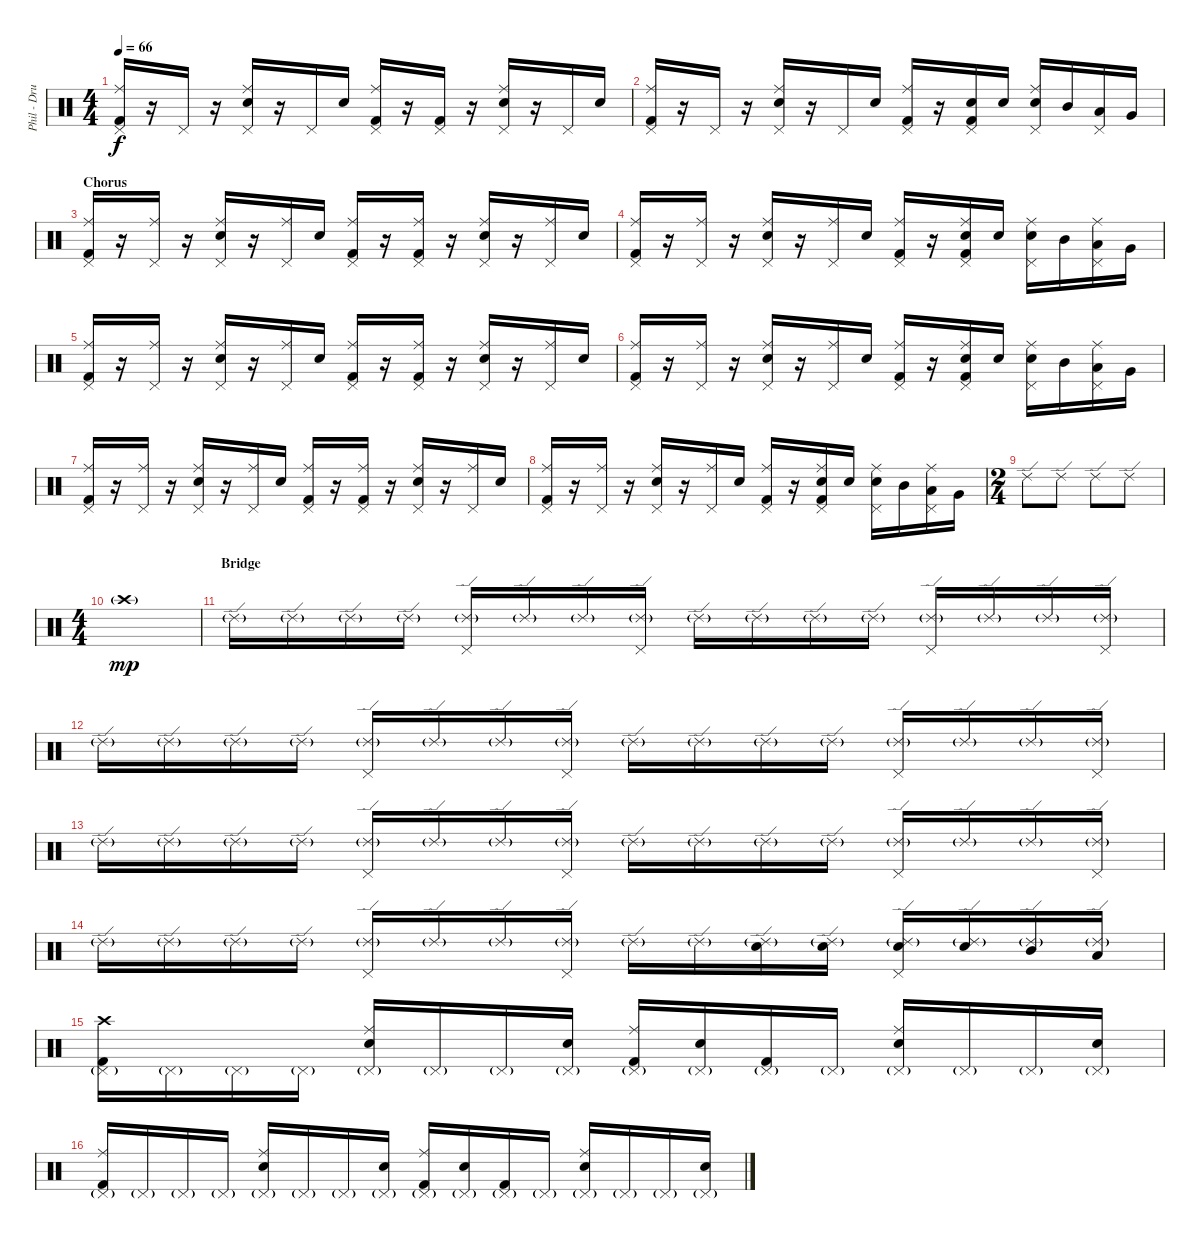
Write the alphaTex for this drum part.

\track ("Phil - Drums" "Phil - Dru") {instrument percussion}
\staff {score}
\articulation defaults
\ts (4 4)
\tempo 66
\clef neutral
\ks c
("Ride (middle)" "Kick (hit) 2" "Pedal Hi-Hat (hit)").16{dy f} r.16 "Pedal Hi-Hat (hit)".16 r.16 ("Ride (middle)" "Electric Snare (hit)" "Pedal Hi-Hat (hit)").16 r.16 "Pedal Hi-Hat (hit)".16 "Electric Snare (hit)".16 ("Ride (middle)" "Kick (hit) 2" "Pedal Hi-Hat (hit)").16 r.16 ("Kick (hit) 2" "Pedal Hi-Hat (hit)").16 r.16 ("Ride (middle)" "Electric Snare (hit)" "Pedal Hi-Hat (hit)").16 r.16 "Pedal Hi-Hat (hit)".16 "Electric Snare (hit)".16 |
("Ride (middle)" "Kick (hit) 2" "Pedal Hi-Hat (hit)").16 r.16 "Pedal Hi-Hat (hit)".16 r.16 ("Ride (middle)" "Electric Snare (hit)" "Pedal Hi-Hat (hit)").16 r.16 "Pedal Hi-Hat (hit)".16 "Electric Snare (hit)".16 ("Ride (middle)" "Kick (hit) 2" "Pedal Hi-Hat (hit)").16 r.16 ("Electric Snare (hit)" "Kick (hit) 2" "Pedal Hi-Hat (hit)").16 "Electric Snare (hit)".16 ("Ride (middle)" "Electric Snare (hit)" "Pedal Hi-Hat (hit)").16 "Mid Tom (hit)".16 ("Low Tom (hit)" "Pedal Hi-Hat (hit)").16 "Very Low Tom (hit)".16 |
\section ("" "Chorus")
("Ride (middle)" "Kick (hit) 2" "Pedal Hi-Hat (hit)").16 r.16 ("Ride (middle)" "Pedal Hi-Hat (hit)").16 r.16 ("Ride (middle)" "Electric Snare (hit)" "Pedal Hi-Hat (hit)").16 r.16 ("Ride (middle)" "Pedal Hi-Hat (hit)").16 "Electric Snare (hit)".16 ("Ride (middle)" "Kick (hit) 2" "Pedal Hi-Hat (hit)").16 r.16 ("Ride (middle)" "Kick (hit) 2" "Pedal Hi-Hat (hit)").16 r.16 ("Ride (middle)" "Electric Snare (hit)" "Pedal Hi-Hat (hit)").16 r.16 ("Ride (middle)" "Pedal Hi-Hat (hit)").16 "Electric Snare (hit)".16 |
("Ride (middle)" "Kick (hit) 2" "Pedal Hi-Hat (hit)").16 r.16 ("Ride (middle)" "Pedal Hi-Hat (hit)").16 r.16 ("Ride (middle)" "Electric Snare (hit)" "Pedal Hi-Hat (hit)").16 r.16 ("Ride (middle)" "Pedal Hi-Hat (hit)").16 "Electric Snare (hit)".16 ("Ride (middle)" "Kick (hit) 2" "Pedal Hi-Hat (hit)").16 r.16 ("Ride (middle)" "Electric Snare (hit)" "Kick (hit) 2" "Pedal Hi-Hat (hit)").16 "Electric Snare (hit)".16 ("Ride (middle)" "Electric Snare (hit)" "Pedal Hi-Hat (hit)").16 "Mid Tom (hit)".16 ("Ride (middle)" "Low Tom (hit)" "Pedal Hi-Hat (hit)").16 "Very Low Tom (hit)".16 |
("Ride (middle)" "Kick (hit) 2" "Pedal Hi-Hat (hit)").16 r.16 ("Ride (middle)" "Pedal Hi-Hat (hit)").16 r.16 ("Ride (middle)" "Electric Snare (hit)" "Pedal Hi-Hat (hit)").16 r.16 ("Ride (middle)" "Pedal Hi-Hat (hit)").16 "Electric Snare (hit)".16 ("Ride (middle)" "Kick (hit) 2" "Pedal Hi-Hat (hit)").16 r.16 ("Ride (middle)" "Kick (hit) 2" "Pedal Hi-Hat (hit)").16 r.16 ("Ride (middle)" "Electric Snare (hit)" "Pedal Hi-Hat (hit)").16 r.16 ("Ride (middle)" "Pedal Hi-Hat (hit)").16 "Electric Snare (hit)".16 |
("Ride (middle)" "Kick (hit) 2" "Pedal Hi-Hat (hit)").16 r.16 ("Ride (middle)" "Pedal Hi-Hat (hit)").16 r.16 ("Ride (middle)" "Electric Snare (hit)" "Pedal Hi-Hat (hit)").16 r.16 ("Ride (middle)" "Pedal Hi-Hat (hit)").16 "Electric Snare (hit)".16 ("Ride (middle)" "Kick (hit) 2" "Pedal Hi-Hat (hit)").16 r.16 ("Ride (middle)" "Electric Snare (hit)" "Kick (hit) 2" "Pedal Hi-Hat (hit)").16 "Electric Snare (hit)".16 ("Ride (middle)" "Electric Snare (hit)" "Pedal Hi-Hat (hit)").16 "Mid Tom (hit)".16 ("Ride (middle)" "Low Tom (hit)" "Pedal Hi-Hat (hit)").16 "Very Low Tom (hit)".16 |
("Ride (middle)" "Kick (hit) 2" "Pedal Hi-Hat (hit)").16 r.16 ("Ride (middle)" "Pedal Hi-Hat (hit)").16 r.16 ("Ride (middle)" "Electric Snare (hit)" "Pedal Hi-Hat (hit)").16 r.16 ("Ride (middle)" "Pedal Hi-Hat (hit)").16 "Electric Snare (hit)".16 ("Ride (middle)" "Kick (hit) 2" "Pedal Hi-Hat (hit)").16 r.16 ("Ride (middle)" "Kick (hit) 2" "Pedal Hi-Hat (hit)").16 r.16 ("Ride (middle)" "Electric Snare (hit)" "Pedal Hi-Hat (hit)").16 r.16 ("Ride (middle)" "Pedal Hi-Hat (hit)").16 "Electric Snare (hit)".16 |
("Ride (middle)" "Kick (hit) 2" "Pedal Hi-Hat (hit)").16 r.16 ("Ride (middle)" "Pedal Hi-Hat (hit)").16 r.16 ("Ride (middle)" "Electric Snare (hit)" "Pedal Hi-Hat (hit)").16 r.16 ("Ride (middle)" "Pedal Hi-Hat (hit)").16 "Electric Snare (hit)".16 ("Ride (middle)" "Kick (hit) 2" "Pedal Hi-Hat (hit)").16 r.16 ("Ride (middle)" "Electric Snare (hit)" "Kick (hit) 2" "Pedal Hi-Hat (hit)").16 "Electric Snare (hit)".16 ("Ride (middle)" "Electric Snare (hit)" "Pedal Hi-Hat (hit)").16 "Mid Tom (hit)".16 ("Ride (middle)" "Low Tom (hit)" "Pedal Hi-Hat (hit)").16 "Very Low Tom (hit)".16 |
\ts (2 4)
"Ride (edge) 2".8 "Ride (edge) 2".8 "Ride (edge) 2".8 "Ride (edge) 2".8 |
\ts (4 4)
"Crash high (hit)"{g}.1{dy mp} |
\section ("" "Bridge")
"Ride (edge) 2"{g}.16 "Ride (edge) 2"{g}.16 "Ride (edge) 2"{g}.16 "Ride (edge) 2"{g}.16 ("Pedal Hi-Hat (hit)" "Ride (edge) 2"{g}).16 "Ride (edge) 2"{g}.16 "Ride (edge) 2"{g}.16 ("Pedal Hi-Hat (hit)" "Ride (edge) 2"{g}).16 "Ride (edge) 2"{g}.16 "Ride (edge) 2"{g}.16 "Ride (edge) 2"{g}.16 "Ride (edge) 2"{g}.16 ("Pedal Hi-Hat (hit)" "Ride (edge) 2"{g}).16 "Ride (edge) 2"{g}.16 "Ride (edge) 2"{g}.16 ("Pedal Hi-Hat (hit)" "Ride (edge) 2"{g}).16 |
"Ride (edge) 2"{g}.16 "Ride (edge) 2"{g}.16 "Ride (edge) 2"{g}.16 "Ride (edge) 2"{g}.16 ("Pedal Hi-Hat (hit)" "Ride (edge) 2"{g}).16 "Ride (edge) 2"{g}.16 "Ride (edge) 2"{g}.16 ("Pedal Hi-Hat (hit)" "Ride (edge) 2"{g}).16 "Ride (edge) 2"{g}.16 "Ride (edge) 2"{g}.16 "Ride (edge) 2"{g}.16 "Ride (edge) 2"{g}.16 ("Pedal Hi-Hat (hit)" "Ride (edge) 2"{g}).16 "Ride (edge) 2"{g}.16 "Ride (edge) 2"{g}.16 ("Pedal Hi-Hat (hit)" "Ride (edge) 2"{g}).16 |
"Ride (edge) 2"{g}.16 "Ride (edge) 2"{g}.16 "Ride (edge) 2"{g}.16 "Ride (edge) 2"{g}.16 ("Pedal Hi-Hat (hit)" "Ride (edge) 2"{g}).16 "Ride (edge) 2"{g}.16 "Ride (edge) 2"{g}.16 ("Pedal Hi-Hat (hit)" "Ride (edge) 2"{g}).16 "Ride (edge) 2"{g}.16 "Ride (edge) 2"{g}.16 "Ride (edge) 2"{g}.16 "Ride (edge) 2"{g}.16 ("Pedal Hi-Hat (hit)" "Ride (edge) 2"{g}).16 "Ride (edge) 2"{g}.16 "Ride (edge) 2"{g}.16 ("Pedal Hi-Hat (hit)" "Ride (edge) 2"{g}).16 |
"Ride (edge) 2"{g}.16 "Ride (edge) 2"{g}.16 "Ride (edge) 2"{g}.16 "Ride (edge) 2"{g}.16 ("Pedal Hi-Hat (hit)" "Ride (edge) 2"{g}).16 "Ride (edge) 2"{g}.16 "Ride (edge) 2"{g}.16 ("Pedal Hi-Hat (hit)" "Ride (edge) 2"{g}).16 "Ride (edge) 2"{g}.16 "Ride (edge) 2"{g}.16 ("Electric Snare (hit)" "Ride (edge) 2"{g}).16 ("Electric Snare (hit)" "Ride (edge) 2"{g}).16 ("Pedal Hi-Hat (hit)" "Electric Snare (hit)" "Ride (edge) 2"{g}).16 ("Electric Snare (hit)" "Ride (edge) 2"{g}).16 ("Mid Tom (hit)" "Ride (edge) 2"{g}).16 ("Low Tom (hit)" "Ride (edge) 2"{g}).16 |
("Crash high (hit)" "Kick (hit) 2" "Pedal Hi-Hat (hit)"{g}).16 "Pedal Hi-Hat (hit)"{g}.16 "Pedal Hi-Hat (hit)"{g}.16 "Pedal Hi-Hat (hit)"{g}.16 ("Ride (middle)" "Electric Snare (hit)" "Pedal Hi-Hat (hit)"{g}).16 "Pedal Hi-Hat (hit)"{g}.16 "Pedal Hi-Hat (hit)"{g}.16 ("Electric Snare (hit)" "Pedal Hi-Hat (hit)"{g}).16 ("Ride (middle)" "Kick (hit) 2" "Pedal Hi-Hat (hit)"{g}).16 ("Electric Snare (hit)" "Pedal Hi-Hat (hit)"{g}).16 ("Kick (hit) 2" "Pedal Hi-Hat (hit)"{g}).16 "Pedal Hi-Hat (hit)"{g}.16 ("Ride (middle)" "Electric Snare (hit)" "Pedal Hi-Hat (hit)"{g}).16 "Pedal Hi-Hat (hit)"{g}.16 "Pedal Hi-Hat (hit)"{g}.16 ("Electric Snare (hit)" "Pedal Hi-Hat (hit)"{g}).16 |
("Ride (middle)" "Kick (hit) 2" "Pedal Hi-Hat (hit)"{g}).16 "Pedal Hi-Hat (hit)"{g}.16 "Pedal Hi-Hat (hit)"{g}.16 "Pedal Hi-Hat (hit)"{g}.16 ("Ride (middle)" "Electric Snare (hit)" "Pedal Hi-Hat (hit)"{g}).16 "Pedal Hi-Hat (hit)"{g}.16 "Pedal Hi-Hat (hit)"{g}.16 ("Electric Snare (hit)" "Pedal Hi-Hat (hit)"{g}).16 ("Ride (middle)" "Kick (hit) 2" "Pedal Hi-Hat (hit)"{g}).16 ("Electric Snare (hit)" "Pedal Hi-Hat (hit)"{g}).16 ("Kick (hit) 2" "Pedal Hi-Hat (hit)"{g}).16 "Pedal Hi-Hat (hit)"{g}.16 ("Ride (middle)" "Electric Snare (hit)" "Pedal Hi-Hat (hit)"{g}).16 "Pedal Hi-Hat (hit)"{g}.16 "Pedal Hi-Hat (hit)"{g}.16 ("Electric Snare (hit)" "Pedal Hi-Hat (hit)"{g}).16
